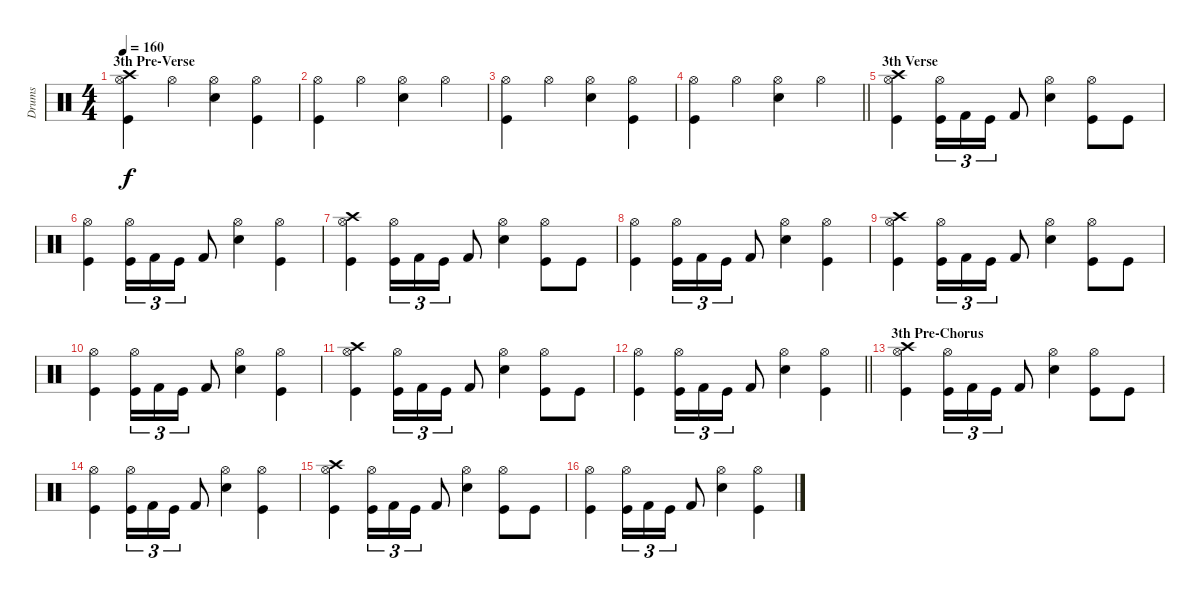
\track ("Drums" "Drums") {instrument percussion}
\staff {score}
\articulation defaults
\ts (4 4)
\section ("" "3th Pre-Verse")
\tempo 160
\clef neutral
\ks c
("Crash high (hit)" "Hi-Hat (open)" "Kick (hit)").4{dy f} "Hi-Hat (open)".4 ("Hi-Hat (open)" "Snare (hit) 2").4 ("Hi-Hat (open)" "Kick (hit)").4 |
("Hi-Hat (open)" "Kick (hit)").4 "Hi-Hat (open)".4 ("Hi-Hat (open)" "Snare (hit) 2").4 "Hi-Hat (open)".4 |
("Hi-Hat (open)" "Kick (hit)").4 "Hi-Hat (open)".4 ("Hi-Hat (open)" "Snare (hit) 2").4 ("Hi-Hat (open)" "Kick (hit)").4 |
\barLineRight lightlight
("Hi-Hat (open)" "Kick (hit)").4 "Hi-Hat (open)".4 ("Hi-Hat (open)" "Snare (hit) 2").4 "Hi-Hat (open)".4 |
\section ("" "3th Verse")
("Crash high (hit)" "Hi-Hat (open)" "Kick (hit)").4 ("Hi-Hat (open)" "Kick (hit)").16{tu (3 2)} "Kick (hit) 2".16{tu (3 2)} "Kick (hit)".16{tu (3 2)} "Kick (hit) 2".8 ("Hi-Hat (open)" "Snare (hit) 2").4 ("Hi-Hat (open)" "Kick (hit)").8 "Kick (hit)".8 |
("Hi-Hat (open)" "Kick (hit)").4 ("Hi-Hat (open)" "Kick (hit)").16{tu (3 2)} "Kick (hit) 2".16{tu (3 2)} "Kick (hit)".16{tu (3 2)} "Kick (hit) 2".8 ("Hi-Hat (open)" "Snare (hit) 2").4 ("Hi-Hat (open)" "Kick (hit)").4 |
("Crash high (hit)" "Hi-Hat (open)" "Kick (hit)").4 ("Hi-Hat (open)" "Kick (hit)").16{tu (3 2)} "Kick (hit) 2".16{tu (3 2)} "Kick (hit)".16{tu (3 2)} "Kick (hit) 2".8 ("Hi-Hat (open)" "Snare (hit) 2").4 ("Hi-Hat (open)" "Kick (hit)").8 "Kick (hit)".8 |
("Hi-Hat (open)" "Kick (hit)").4 ("Hi-Hat (open)" "Kick (hit)").16{tu (3 2)} "Kick (hit) 2".16{tu (3 2)} "Kick (hit)".16{tu (3 2)} "Kick (hit) 2".8 ("Hi-Hat (open)" "Snare (hit) 2").4 ("Hi-Hat (open)" "Kick (hit)").4 |
("Crash high (hit)" "Hi-Hat (open)" "Kick (hit)").4 ("Hi-Hat (open)" "Kick (hit)").16{tu (3 2)} "Kick (hit) 2".16{tu (3 2)} "Kick (hit)".16{tu (3 2)} "Kick (hit) 2".8 ("Hi-Hat (open)" "Snare (hit) 2").4 ("Hi-Hat (open)" "Kick (hit)").8 "Kick (hit)".8 |
("Hi-Hat (open)" "Kick (hit)").4 ("Hi-Hat (open)" "Kick (hit)").16{tu (3 2)} "Kick (hit) 2".16{tu (3 2)} "Kick (hit)".16{tu (3 2)} "Kick (hit) 2".8 ("Hi-Hat (open)" "Snare (hit) 2").4 ("Hi-Hat (open)" "Kick (hit)").4 |
("Crash high (hit)" "Hi-Hat (open)" "Kick (hit)").4 ("Hi-Hat (open)" "Kick (hit)").16{tu (3 2)} "Kick (hit) 2".16{tu (3 2)} "Kick (hit)".16{tu (3 2)} "Kick (hit) 2".8 ("Hi-Hat (open)" "Snare (hit) 2").4 ("Hi-Hat (open)" "Kick (hit)").8 "Kick (hit)".8 |
\barLineRight lightlight
("Hi-Hat (open)" "Kick (hit)").4 ("Hi-Hat (open)" "Kick (hit)").16{tu (3 2)} "Kick (hit) 2".16{tu (3 2)} "Kick (hit)".16{tu (3 2)} "Kick (hit) 2".8 ("Hi-Hat (open)" "Snare (hit) 2").4 ("Hi-Hat (open)" "Kick (hit)").4 |
\section ("" "3th Pre-Chorus")
("Crash high (hit)" "Hi-Hat (open)" "Kick (hit)").4 ("Hi-Hat (open)" "Kick (hit)").16{tu (3 2)} "Kick (hit) 2".16{tu (3 2)} "Kick (hit)".16{tu (3 2)} "Kick (hit) 2".8 ("Hi-Hat (open)" "Snare (hit) 2").4 ("Hi-Hat (open)" "Kick (hit)").8 "Kick (hit)".8 |
("Hi-Hat (open)" "Kick (hit)").4 ("Hi-Hat (open)" "Kick (hit)").16{tu (3 2)} "Kick (hit) 2".16{tu (3 2)} "Kick (hit)".16{tu (3 2)} "Kick (hit) 2".8 ("Hi-Hat (open)" "Snare (hit) 2").4 ("Hi-Hat (open)" "Kick (hit)").4 |
("Crash high (hit)" "Hi-Hat (open)" "Kick (hit)").4 ("Hi-Hat (open)" "Kick (hit)").16{tu (3 2)} "Kick (hit) 2".16{tu (3 2)} "Kick (hit)".16{tu (3 2)} "Kick (hit) 2".8 ("Hi-Hat (open)" "Snare (hit) 2").4 ("Hi-Hat (open)" "Kick (hit)").8 "Kick (hit)".8 |
("Hi-Hat (open)" "Kick (hit)").4 ("Hi-Hat (open)" "Kick (hit)").16{tu (3 2)} "Kick (hit) 2".16{tu (3 2)} "Kick (hit)".16{tu (3 2)} "Kick (hit) 2".8 ("Hi-Hat (open)" "Snare (hit) 2").4 ("Hi-Hat (open)" "Kick (hit)").4
